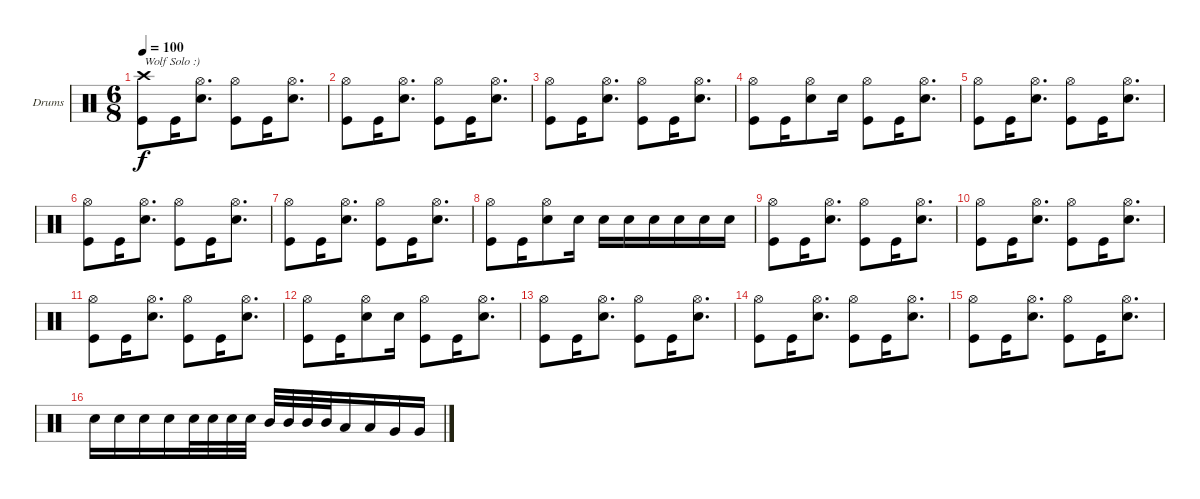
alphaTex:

\defaultSystemsLayout 4
\bracketExtendMode groupsimilarinstruments
\firstSystemTrackNameOrientation horizontal
\otherSystemsTrackNameOrientation horizontal
\track ("Stefan Schwarzmann" "Drums") {instrument percussion}
\staff {score}
\articulation defaults
\ts (6 8)
\tempo 100
\clef neutral
\ks c
("Kick (hit)" "Crash high (hit)").8{txt "Wolf Solo :)" dy f} "Kick (hit)".16 ("Snare (hit) 2" "Hi-Hat (open)").8{d} ("Kick (hit)" "Hi-Hat (open)").8 "Kick (hit)".16 ("Snare (hit) 2" "Hi-Hat (open)").8{d} |
("Kick (hit)" "Hi-Hat (open)").8 "Kick (hit)".16 ("Snare (hit) 2" "Hi-Hat (open)").8{d} ("Kick (hit)" "Hi-Hat (open)").8 "Kick (hit)".16 ("Snare (hit) 2" "Hi-Hat (open)").8{d} |
("Kick (hit)" "Hi-Hat (open)").8 "Kick (hit)".16 ("Snare (hit) 2" "Hi-Hat (open)").8{d} ("Kick (hit)" "Hi-Hat (open)").8 "Kick (hit)".16 ("Snare (hit) 2" "Hi-Hat (open)").8{d} |
("Kick (hit)" "Hi-Hat (open)").8 "Kick (hit)".16 ("Snare (hit) 2" "Hi-Hat (open)").8 "Snare (hit) 2".16 ("Kick (hit)" "Hi-Hat (open)").8 "Kick (hit)".16 ("Snare (hit) 2" "Hi-Hat (open)").8{d} |
("Kick (hit)" "Hi-Hat (open)").8 "Kick (hit)".16 ("Snare (hit) 2" "Hi-Hat (open)").8{d} ("Kick (hit)" "Hi-Hat (open)").8 "Kick (hit)".16 ("Snare (hit) 2" "Hi-Hat (open)").8{d} |
("Kick (hit)" "Hi-Hat (open)").8 "Kick (hit)".16 ("Snare (hit) 2" "Hi-Hat (open)").8{d} ("Kick (hit)" "Hi-Hat (open)").8 "Kick (hit)".16 ("Snare (hit) 2" "Hi-Hat (open)").8{d} |
("Kick (hit)" "Hi-Hat (open)").8 "Kick (hit)".16 ("Snare (hit) 2" "Hi-Hat (open)").8{d} ("Kick (hit)" "Hi-Hat (open)").8 "Kick (hit)".16 ("Snare (hit) 2" "Hi-Hat (open)").8{d} |
("Kick (hit)" "Hi-Hat (open)").8 "Kick (hit)".16 ("Snare (hit) 2" "Hi-Hat (open)").8 "Snare (hit) 2".16 "Snare (hit) 2".16 "Snare (hit) 2".16 "Snare (hit) 2".16 "Snare (hit) 2".16 "Snare (hit) 2".16 "Snare (hit) 2".16 |
("Kick (hit)" "Hi-Hat (open)").8 "Kick (hit)".16 ("Snare (hit) 2" "Hi-Hat (open)").8{d} ("Kick (hit)" "Hi-Hat (open)").8 "Kick (hit)".16 ("Snare (hit) 2" "Hi-Hat (open)").8{d} |
("Kick (hit)" "Hi-Hat (open)").8 "Kick (hit)".16 ("Snare (hit) 2" "Hi-Hat (open)").8{d} ("Kick (hit)" "Hi-Hat (open)").8 "Kick (hit)".16 ("Snare (hit) 2" "Hi-Hat (open)").8{d} |
("Kick (hit)" "Hi-Hat (open)").8 "Kick (hit)".16 ("Snare (hit) 2" "Hi-Hat (open)").8{d} ("Kick (hit)" "Hi-Hat (open)").8 "Kick (hit)".16 ("Snare (hit) 2" "Hi-Hat (open)").8{d} |
("Kick (hit)" "Hi-Hat (open)").8 "Kick (hit)".16 ("Snare (hit) 2" "Hi-Hat (open)").8 "Snare (hit) 2".16 ("Kick (hit)" "Hi-Hat (open)").8 "Kick (hit)".16 ("Snare (hit) 2" "Hi-Hat (open)").8{d} |
("Kick (hit)" "Hi-Hat (open)").8 "Kick (hit)".16 ("Snare (hit) 2" "Hi-Hat (open)").8{d} ("Kick (hit)" "Hi-Hat (open)").8 "Kick (hit)".16 ("Snare (hit) 2" "Hi-Hat (open)").8{d} |
("Kick (hit)" "Hi-Hat (open)").8 "Kick (hit)".16 ("Snare (hit) 2" "Hi-Hat (open)").8{d} ("Kick (hit)" "Hi-Hat (open)").8 "Kick (hit)".16 ("Snare (hit) 2" "Hi-Hat (open)").8{d} |
("Kick (hit)" "Hi-Hat (open)").8 "Kick (hit)".16 ("Snare (hit) 2" "Hi-Hat (open)").8{d} ("Kick (hit)" "Hi-Hat (open)").8 "Kick (hit)".16 ("Snare (hit) 2" "Hi-Hat (open)").8{d} |
"Snare (hit) 2".16 "Snare (hit) 2".16 "Snare (hit) 2".16 "Snare (hit) 2".16 "Snare (hit) 2".32 "Snare (hit) 2".32 "Snare (hit) 2".32 "Snare (hit) 2".32 "Mid Tom (hit)".32 "Mid Tom (hit)".32 "Mid Tom (hit)".32 "Mid Tom (hit)".32 "Low Tom (hit)".16 "Low Tom (hit)".16 "Very Low Tom (hit)".16 "Very Low Tom (hit)".16
